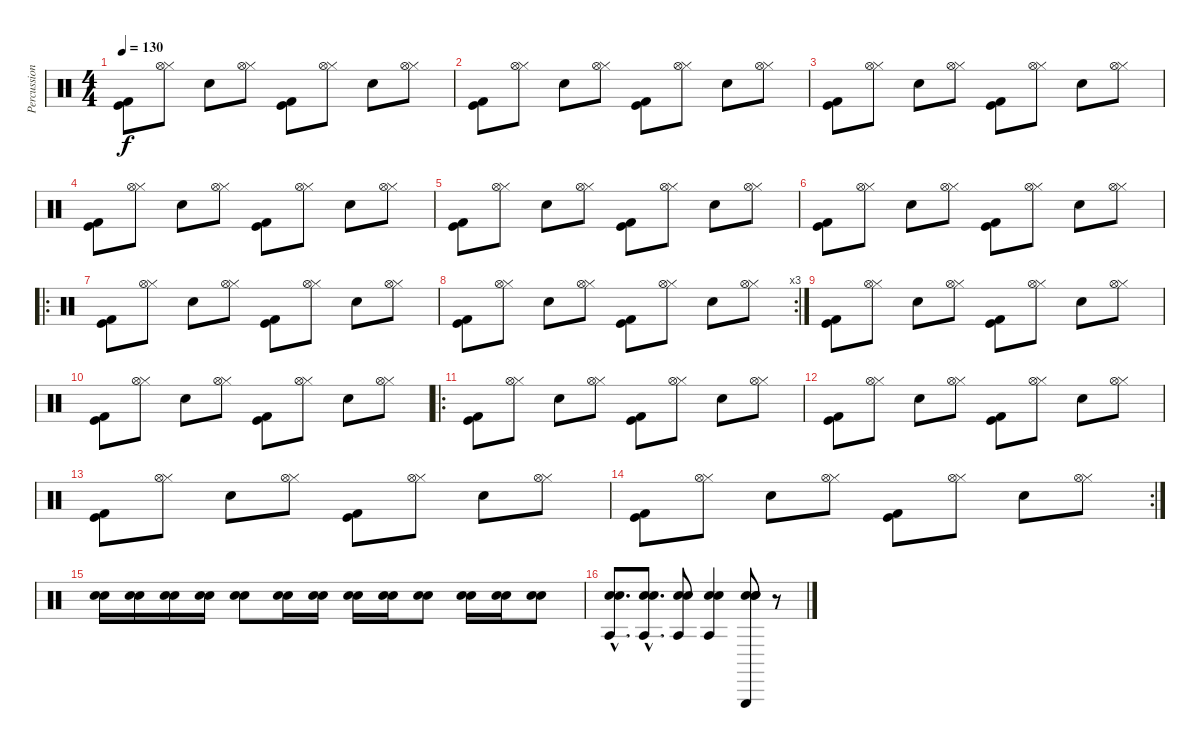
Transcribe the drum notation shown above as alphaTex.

\track ("Percussion" "Percussion") {instrument percussion}
\staff {score}
\articulation defaults
\ts (4 4)
\tempo 130
\clef neutral
\ks c
("Kick (hit)" "Kick (hit) 2").8{dy f} ("Hi-Hat (closed)" "Hi-Hat (open)").8 "Electric Snare (hit)".8 ("Hi-Hat (closed)" "Hi-Hat (open)").8 ("Kick (hit)" "Kick (hit) 2").8 ("Hi-Hat (closed)" "Hi-Hat (open)").8 "Electric Snare (hit)".8 ("Hi-Hat (closed)" "Hi-Hat (open)").8 |
("Kick (hit)" "Kick (hit) 2").8 ("Hi-Hat (closed)" "Hi-Hat (open)").8 "Electric Snare (hit)".8 ("Hi-Hat (closed)" "Hi-Hat (open)").8 ("Kick (hit)" "Kick (hit) 2").8 ("Hi-Hat (closed)" "Hi-Hat (open)").8 "Electric Snare (hit)".8 ("Hi-Hat (closed)" "Hi-Hat (open)").8 |
("Kick (hit)" "Kick (hit) 2").8 ("Hi-Hat (closed)" "Hi-Hat (open)").8 "Electric Snare (hit)".8 ("Hi-Hat (closed)" "Hi-Hat (open)").8 ("Kick (hit)" "Kick (hit) 2").8 ("Hi-Hat (closed)" "Hi-Hat (open)").8 "Electric Snare (hit)".8 ("Hi-Hat (closed)" "Hi-Hat (open)").8 |
("Kick (hit)" "Kick (hit) 2").8 ("Hi-Hat (closed)" "Hi-Hat (open)").8 "Electric Snare (hit)".8 ("Hi-Hat (closed)" "Hi-Hat (open)").8 ("Kick (hit)" "Kick (hit) 2").8 ("Hi-Hat (closed)" "Hi-Hat (open)").8 "Electric Snare (hit)".8 ("Hi-Hat (closed)" "Hi-Hat (open)").8 |
("Kick (hit)" "Kick (hit) 2").8 ("Hi-Hat (closed)" "Hi-Hat (open)").8 "Electric Snare (hit)".8 ("Hi-Hat (closed)" "Hi-Hat (open)").8 ("Kick (hit)" "Kick (hit) 2").8 ("Hi-Hat (closed)" "Hi-Hat (open)").8 "Electric Snare (hit)".8 ("Hi-Hat (closed)" "Hi-Hat (open)").8 |
("Kick (hit)" "Kick (hit) 2").8 ("Hi-Hat (closed)" "Hi-Hat (open)").8 "Electric Snare (hit)".8 ("Hi-Hat (closed)" "Hi-Hat (open)").8 ("Kick (hit)" "Kick (hit) 2").8 ("Hi-Hat (closed)" "Hi-Hat (open)").8 "Electric Snare (hit)".8 ("Hi-Hat (closed)" "Hi-Hat (open)").8 |
\ro
("Kick (hit)" "Kick (hit) 2").8 ("Hi-Hat (closed)" "Hi-Hat (open)").8 "Electric Snare (hit)".8 ("Hi-Hat (closed)" "Hi-Hat (open)").8 ("Kick (hit)" "Kick (hit) 2").8 ("Hi-Hat (closed)" "Hi-Hat (open)").8 "Electric Snare (hit)".8 ("Hi-Hat (closed)" "Hi-Hat (open)").8 |
\rc 3
("Kick (hit)" "Kick (hit) 2").8 ("Hi-Hat (closed)" "Hi-Hat (open)").8 "Electric Snare (hit)".8 ("Hi-Hat (closed)" "Hi-Hat (open)").8 ("Kick (hit)" "Kick (hit) 2").8 ("Hi-Hat (closed)" "Hi-Hat (open)").8 "Electric Snare (hit)".8 ("Hi-Hat (closed)" "Hi-Hat (open)").8 |
("Kick (hit)" "Kick (hit) 2").8 ("Hi-Hat (closed)" "Hi-Hat (open)").8 "Electric Snare (hit)".8 ("Hi-Hat (closed)" "Hi-Hat (open)").8 ("Kick (hit)" "Kick (hit) 2").8 ("Hi-Hat (closed)" "Hi-Hat (open)").8 "Electric Snare (hit)".8 ("Hi-Hat (closed)" "Hi-Hat (open)").8 |
("Kick (hit)" "Kick (hit) 2").8 ("Hi-Hat (closed)" "Hi-Hat (open)").8 "Electric Snare (hit)".8 ("Hi-Hat (closed)" "Hi-Hat (open)").8 ("Kick (hit)" "Kick (hit) 2").8 ("Hi-Hat (closed)" "Hi-Hat (open)").8 "Electric Snare (hit)".8 ("Hi-Hat (closed)" "Hi-Hat (open)").8 |
\ro
("Kick (hit)" "Kick (hit) 2").8 ("Hi-Hat (closed)" "Hi-Hat (open)").8 "Electric Snare (hit)".8 ("Hi-Hat (closed)" "Hi-Hat (open)").8 ("Kick (hit)" "Kick (hit) 2").8 ("Hi-Hat (closed)" "Hi-Hat (open)").8 "Electric Snare (hit)".8 ("Hi-Hat (closed)" "Hi-Hat (open)").8 |
("Kick (hit)" "Kick (hit) 2").8 ("Hi-Hat (closed)" "Hi-Hat (open)").8 "Electric Snare (hit)".8 ("Hi-Hat (closed)" "Hi-Hat (open)").8 ("Kick (hit)" "Kick (hit) 2").8 ("Hi-Hat (closed)" "Hi-Hat (open)").8 "Electric Snare (hit)".8 ("Hi-Hat (closed)" "Hi-Hat (open)").8 |
("Kick (hit)" "Kick (hit) 2").8 ("Hi-Hat (closed)" "Hi-Hat (open)").8 "Electric Snare (hit)".8 ("Hi-Hat (closed)" "Hi-Hat (open)").8 ("Kick (hit)" "Kick (hit) 2").8 ("Hi-Hat (closed)" "Hi-Hat (open)").8 "Electric Snare (hit)".8 ("Hi-Hat (closed)" "Hi-Hat (open)").8 |
\rc 2
("Kick (hit)" "Kick (hit) 2").8 ("Hi-Hat (closed)" "Hi-Hat (open)").8 "Electric Snare (hit)".8 ("Hi-Hat (closed)" "Hi-Hat (open)").8 ("Kick (hit)" "Kick (hit) 2").8 ("Hi-Hat (closed)" "Hi-Hat (open)").8 "Electric Snare (hit)".8 ("Hi-Hat (closed)" "Hi-Hat (open)").8 |
("Electric Snare (hit)" "Electric Snare (hit)").16 ("Electric Snare (hit)" "Electric Snare (hit)").16 ("Electric Snare (hit)" "Electric Snare (hit)").16 ("Electric Snare (hit)" "Electric Snare (hit)").16 ("Electric Snare (hit)" "Electric Snare (hit)").8 ("Electric Snare (hit)" "Electric Snare (hit)").16 ("Electric Snare (hit)" "Electric Snare (hit)").16 ("Electric Snare (hit)" "Electric Snare (hit)").16 ("Electric Snare (hit)" "Electric Snare (hit)").16 ("Electric Snare (hit)" "Electric Snare (hit)").8 ("Electric Snare (hit)" "Electric Snare (hit)").16 ("Electric Snare (hit)" "Electric Snare (hit)").16 ("Electric Snare (hit)" "Electric Snare (hit)").8 |
("Agogo tow (hit)"{hac} "Electric Snare (hit)"{hac} "Electric Snare (hit)"{hac}).8{d} ("Agogo tow (hit)"{hac} "Electric Snare (hit)"{hac} "Electric Snare (hit)"{hac}).8{d} ("Agogo tow (hit)" "Electric Snare (hit)" "Electric Snare (hit)").8 ("Agogo tow (hit)" "Electric Snare (hit)" "Electric Snare (hit)").4 ("Triangle (hit)" "Electric Snare (hit)" "Electric Snare (hit)" "Electric Snare (hit)").8 r.8
